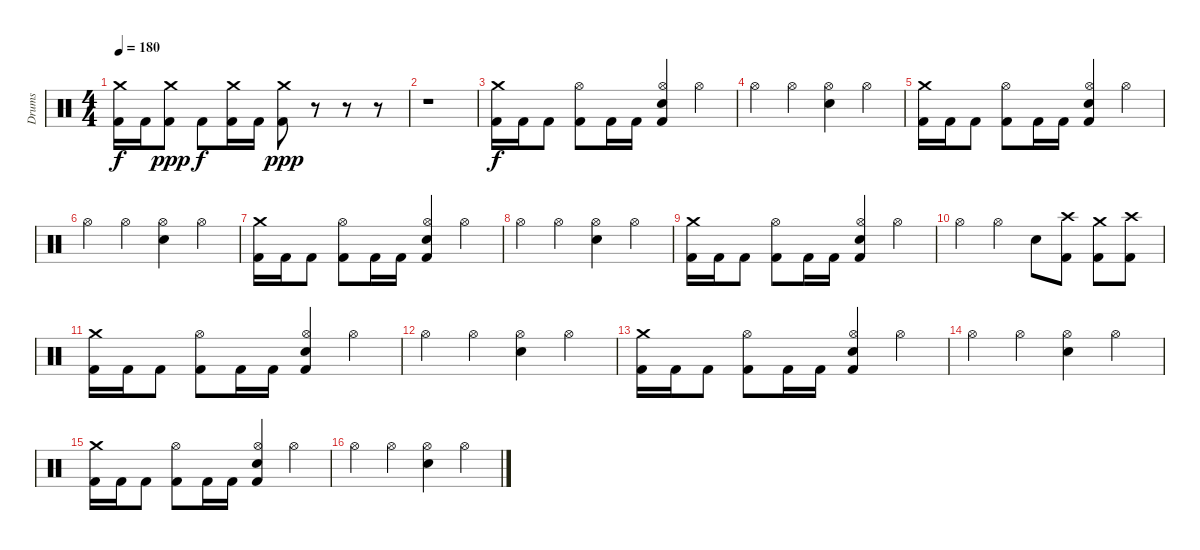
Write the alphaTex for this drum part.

\track ("Drums" "Drums") {instrument percussion}
\staff
\articulation defaults
\ts (4 4)
\tempo 180
\clef neutral
\ks c
("Crash medium (hit)" "Kick (hit) 2").16{dy f} "Kick (hit) 2".16 ("Crash medium (hit)" "Kick (hit) 2").8{dy ppp} "Kick (hit) 2".8{dy f} ("Crash medium (hit)" "Kick (hit) 2").16 "Kick (hit) 2".16 ("Crash medium (hit)" "Kick (hit) 2").8{dy ppp} r.8 r.8 r.8 |
r.1 |
("Crash medium (hit)" "Kick (hit) 2").16{dy f} "Kick (hit) 2".16 "Kick (hit) 2".8 ("Hi-Hat (open)" "Kick (hit) 2").8 "Kick (hit) 2".16 "Kick (hit) 2".16 ("Hi-Hat (open)" "Electric Snare (hit)" "Kick (hit) 2").4 "Hi-Hat (open)".4 |
"Hi-Hat (open)".4 "Hi-Hat (open)".4 ("Hi-Hat (open)" "Electric Snare (hit)").4 "Hi-Hat (open)".4 |
("Crash medium (hit)" "Kick (hit) 2").16 "Kick (hit) 2".16 "Kick (hit) 2".8 ("Hi-Hat (open)" "Kick (hit) 2").8 "Kick (hit) 2".16 "Kick (hit) 2".16 ("Hi-Hat (open)" "Electric Snare (hit)" "Kick (hit) 2").4 "Hi-Hat (open)".4 |
"Hi-Hat (open)".4 "Hi-Hat (open)".4 ("Hi-Hat (open)" "Electric Snare (hit)").4 "Hi-Hat (open)".4 |
("Crash medium (hit)" "Kick (hit) 2").16 "Kick (hit) 2".16 "Kick (hit) 2".8 ("Hi-Hat (open)" "Kick (hit) 2").8 "Kick (hit) 2".16 "Kick (hit) 2".16 ("Hi-Hat (open)" "Electric Snare (hit)" "Kick (hit) 2").4 "Hi-Hat (open)".4 |
"Hi-Hat (open)".4 "Hi-Hat (open)".4 ("Hi-Hat (open)" "Electric Snare (hit)").4 "Hi-Hat (open)".4 |
("Crash medium (hit)" "Kick (hit) 2").16 "Kick (hit) 2".16 "Kick (hit) 2".8 ("Hi-Hat (open)" "Kick (hit) 2").8 "Kick (hit) 2".16 "Kick (hit) 2".16 ("Hi-Hat (open)" "Electric Snare (hit)" "Kick (hit) 2").4 "Hi-Hat (open)".4 |
"Hi-Hat (open)".4 "Hi-Hat (open)".4 "Electric Snare (hit)".8 ("Crash high (hit)" "Kick (hit) 2").8 ("Crash medium (hit)" "Kick (hit) 2").8 ("Crash high (hit)" "Kick (hit) 2").8 |
("Crash medium (hit)" "Kick (hit) 2").16 "Kick (hit) 2".16 "Kick (hit) 2".8 ("Hi-Hat (open)" "Kick (hit) 2").8 "Kick (hit) 2".16 "Kick (hit) 2".16 ("Hi-Hat (open)" "Electric Snare (hit)" "Kick (hit) 2").4 "Hi-Hat (open)".4 |
"Hi-Hat (open)".4 "Hi-Hat (open)".4 ("Hi-Hat (open)" "Electric Snare (hit)").4 "Hi-Hat (open)".4 |
("Crash medium (hit)" "Kick (hit) 2").16 "Kick (hit) 2".16 "Kick (hit) 2".8 ("Hi-Hat (open)" "Kick (hit) 2").8 "Kick (hit) 2".16 "Kick (hit) 2".16 ("Hi-Hat (open)" "Electric Snare (hit)" "Kick (hit) 2").4 "Hi-Hat (open)".4 |
"Hi-Hat (open)".4 "Hi-Hat (open)".4 ("Hi-Hat (open)" "Electric Snare (hit)").4 "Hi-Hat (open)".4 |
("Crash medium (hit)" "Kick (hit) 2").16 "Kick (hit) 2".16 "Kick (hit) 2".8 ("Hi-Hat (open)" "Kick (hit) 2").8 "Kick (hit) 2".16 "Kick (hit) 2".16 ("Hi-Hat (open)" "Electric Snare (hit)" "Kick (hit) 2").4 "Hi-Hat (open)".4 |
"Hi-Hat (open)".4 "Hi-Hat (open)".4 ("Hi-Hat (open)" "Electric Snare (hit)").4 "Hi-Hat (open)".4
